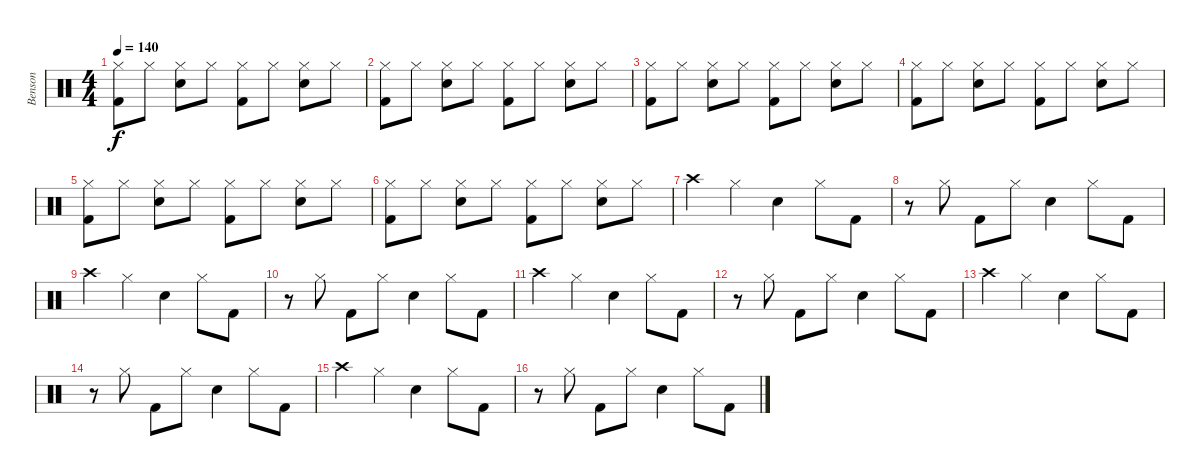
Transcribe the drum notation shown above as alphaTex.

\track ("Benson" "Benson") {instrument percussion}
\staff {score}
\articulation defaults
\ts (4 4)
\tempo 140
\clef neutral
\ks c
("Hi-Hat (closed)" "Kick (hit) 2").8{dy f} "Hi-Hat (closed)".8 ("Hi-Hat (closed)" "Electric Snare (hit)").8 "Hi-Hat (closed)".8 ("Hi-Hat (closed)" "Kick (hit) 2").8 "Hi-Hat (closed)".8 ("Hi-Hat (closed)" "Electric Snare (hit)").8 "Hi-Hat (closed)".8 |
("Hi-Hat (closed)" "Kick (hit) 2").8 "Hi-Hat (closed)".8 ("Hi-Hat (closed)" "Electric Snare (hit)").8 "Hi-Hat (closed)".8 ("Hi-Hat (closed)" "Kick (hit) 2").8 "Hi-Hat (closed)".8 ("Hi-Hat (closed)" "Electric Snare (hit)").8 "Hi-Hat (closed)".8 |
("Hi-Hat (closed)" "Kick (hit) 2").8 "Hi-Hat (closed)".8 ("Hi-Hat (closed)" "Electric Snare (hit)").8 "Hi-Hat (closed)".8 ("Hi-Hat (closed)" "Kick (hit) 2").8 "Hi-Hat (closed)".8 ("Hi-Hat (closed)" "Electric Snare (hit)").8 "Hi-Hat (closed)".8 |
("Hi-Hat (closed)" "Kick (hit) 2").8 "Hi-Hat (closed)".8 ("Hi-Hat (closed)" "Electric Snare (hit)").8 "Hi-Hat (closed)".8 ("Hi-Hat (closed)" "Kick (hit) 2").8 "Hi-Hat (closed)".8 ("Hi-Hat (closed)" "Electric Snare (hit)").8 "Hi-Hat (closed)".8 |
("Hi-Hat (closed)" "Kick (hit) 2").8 "Hi-Hat (closed)".8 ("Hi-Hat (closed)" "Electric Snare (hit)").8 "Hi-Hat (closed)".8 ("Hi-Hat (closed)" "Kick (hit) 2").8 "Hi-Hat (closed)".8 ("Hi-Hat (closed)" "Electric Snare (hit)").8 "Hi-Hat (closed)".8 |
("Hi-Hat (closed)" "Kick (hit) 2").8 "Hi-Hat (closed)".8 ("Hi-Hat (closed)" "Electric Snare (hit)").8 "Hi-Hat (closed)".8 ("Hi-Hat (closed)" "Kick (hit) 2").8 "Hi-Hat (closed)".8 ("Hi-Hat (closed)" "Electric Snare (hit)").8 "Hi-Hat (closed)".8 |
"Crash high (hit)".4 "Hi-Hat (closed)".4 "Electric Snare (hit)".4 "Hi-Hat (closed)".8 "Kick (hit) 2".8 |
r.8 "Hi-Hat (closed)".8 "Kick (hit) 2".8 "Hi-Hat (closed)".8 "Electric Snare (hit)".4 "Hi-Hat (closed)".8 "Kick (hit) 2".8 |
"Crash high (hit)".4 "Hi-Hat (closed)".4 "Electric Snare (hit)".4 "Hi-Hat (closed)".8 "Kick (hit) 2".8 |
r.8 "Hi-Hat (closed)".8 "Kick (hit) 2".8 "Hi-Hat (closed)".8 "Electric Snare (hit)".4 "Hi-Hat (closed)".8 "Kick (hit) 2".8 |
"Crash high (hit)".4 "Hi-Hat (closed)".4 "Electric Snare (hit)".4 "Hi-Hat (closed)".8 "Kick (hit) 2".8 |
r.8 "Hi-Hat (closed)".8 "Kick (hit) 2".8 "Hi-Hat (closed)".8 "Electric Snare (hit)".4 "Hi-Hat (closed)".8 "Kick (hit) 2".8 |
"Crash high (hit)".4 "Hi-Hat (closed)".4 "Electric Snare (hit)".4 "Hi-Hat (closed)".8 "Kick (hit) 2".8 |
r.8 "Hi-Hat (closed)".8 "Kick (hit) 2".8 "Hi-Hat (closed)".8 "Electric Snare (hit)".4 "Hi-Hat (closed)".8 "Kick (hit) 2".8 |
"Crash high (hit)".4 "Hi-Hat (closed)".4 "Electric Snare (hit)".4 "Hi-Hat (closed)".8 "Kick (hit) 2".8 |
r.8 "Hi-Hat (closed)".8 "Kick (hit) 2".8 "Hi-Hat (closed)".8 "Electric Snare (hit)".4 "Hi-Hat (closed)".8 "Kick (hit) 2".8
